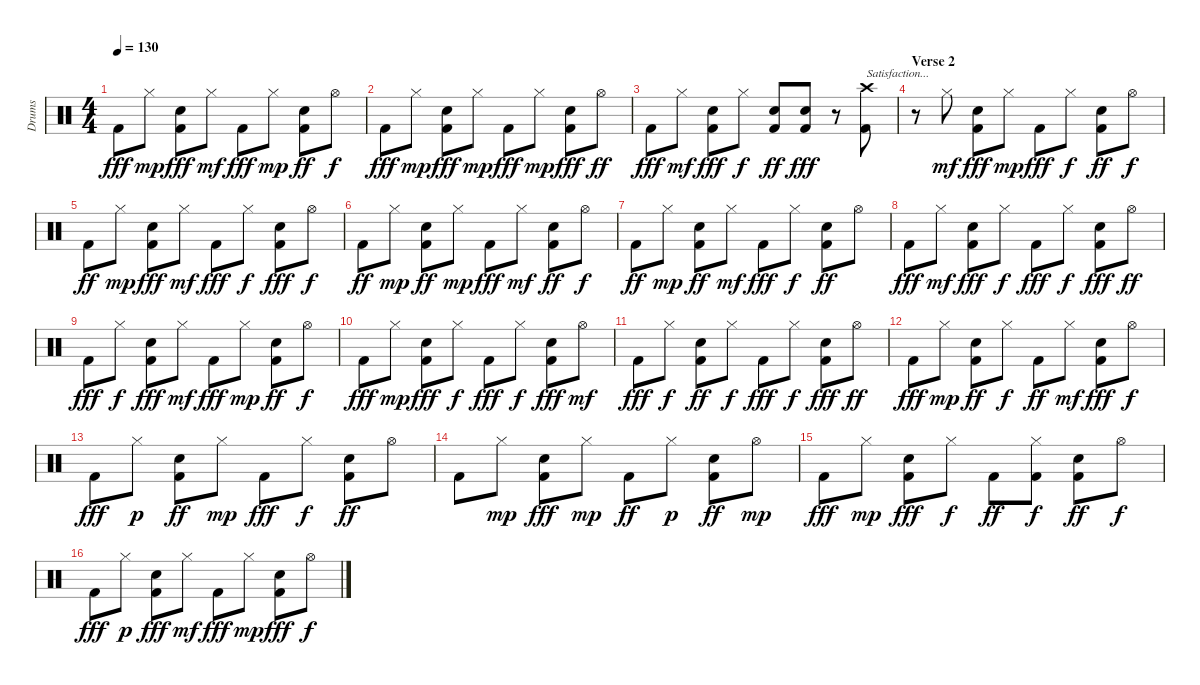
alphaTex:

\track ("Drums" "Drums") {instrument percussion}
\staff {score}
\articulation defaults
\ts (4 4)
\tempo 130
\clef neutral
\ks c "Kick (hit) 2".8{dy fff} "Hi-Hat (closed)".8{dy mp}
("Kick (hit) 2" "Snare (hit) 2").8{dy fff} "Hi-Hat (closed)".8{dy mf} "Kick (hit) 2".8{dy fff} "Hi-Hat (closed)".8{dy mp} ("Kick (hit) 2" "Snare (hit) 2").8{dy ff} "Hi-Hat (open)".8{dy f} |
"Kick (hit) 2".8{dy fff} "Hi-Hat (closed)".8{dy mp} ("Kick (hit) 2" "Snare (hit) 2").8{dy fff} "Hi-Hat (closed)".8{dy mp} "Kick (hit) 2".8{dy fff} "Hi-Hat (closed)".8{dy mp} ("Kick (hit) 2" "Snare (hit) 2").8{dy fff} "Hi-Hat (open)".8{dy ff} |
"Kick (hit) 2".8{dy fff} "Hi-Hat (closed)".8{dy mf} ("Kick (hit) 2" "Snare (hit) 2").8{dy fff} "Hi-Hat (closed)".8{dy f} ("Kick (hit) 2" "Snare (hit) 2").8{dy ff} ("Kick (hit) 2" "Snare (hit) 2").8{dy fff} r.8 ("Kick (hit) 2" "Crash high (hit)").8{txt "Satisfaction..."} |
\section ("" "Verse 2")
r.8 "Hi-Hat (closed)".8{dy mf} ("Kick (hit) 2" "Snare (hit) 2").8{dy fff} "Hi-Hat (closed)".8{dy mp} "Kick (hit) 2".8{dy fff} "Hi-Hat (closed)".8{dy f} ("Kick (hit) 2" "Snare (hit) 2").8{dy ff} "Hi-Hat (open)".8{dy f} |
"Kick (hit) 2".8{dy ff} "Hi-Hat (closed)".8{dy mp} ("Kick (hit) 2" "Snare (hit) 2").8{dy fff} "Hi-Hat (closed)".8{dy mf} "Kick (hit) 2".8{dy fff} "Hi-Hat (closed)".8{dy f} ("Kick (hit) 2" "Snare (hit) 2").8{dy fff} "Hi-Hat (open)".8{dy f} |
"Kick (hit) 2".8{dy ff} "Hi-Hat (closed)".8{dy mp} ("Kick (hit) 2" "Snare (hit) 2").8{dy ff} "Hi-Hat (closed)".8{dy mp} "Kick (hit) 2".8{dy fff} "Hi-Hat (closed)".8{dy mf} ("Kick (hit) 2" "Snare (hit) 2").8{dy ff} "Hi-Hat (open)".8{dy f} |
"Kick (hit) 2".8{dy ff} "Hi-Hat (closed)".8{dy mp} ("Kick (hit) 2" "Snare (hit) 2").8{dy ff} "Hi-Hat (closed)".8{dy mf} "Kick (hit) 2".8{dy fff} "Hi-Hat (closed)".8{dy f} ("Kick (hit) 2" "Snare (hit) 2").8{dy ff} "Hi-Hat (open)".8 |
"Kick (hit) 2".8{dy fff} "Hi-Hat (closed)".8{dy mf} ("Kick (hit) 2" "Snare (hit) 2").8{dy fff} "Hi-Hat (closed)".8{dy f} "Kick (hit) 2".8{dy fff} "Hi-Hat (closed)".8{dy f} ("Kick (hit) 2" "Snare (hit) 2").8{dy fff} "Hi-Hat (open)".8{dy ff} |
"Kick (hit) 2".8{dy fff} "Hi-Hat (closed)".8{dy f} ("Kick (hit) 2" "Snare (hit) 2").8{dy fff} "Hi-Hat (closed)".8{dy mf} "Kick (hit) 2".8{dy fff} "Hi-Hat (closed)".8{dy mp} ("Kick (hit) 2" "Snare (hit) 2").8{dy ff} "Hi-Hat (open)".8{dy f} |
"Kick (hit) 2".8{dy fff} "Hi-Hat (closed)".8{dy mp} ("Kick (hit) 2" "Snare (hit) 2").8{dy fff} "Hi-Hat (closed)".8{dy f} "Kick (hit) 2".8{dy fff} "Hi-Hat (closed)".8{dy f} ("Kick (hit) 2" "Snare (hit) 2").8{dy fff} "Hi-Hat (open)".8{dy mf} |
"Kick (hit) 2".8{dy fff} "Hi-Hat (closed)".8{dy f} ("Kick (hit) 2" "Snare (hit) 2").8{dy ff} "Hi-Hat (closed)".8{dy f} "Kick (hit) 2".8{dy fff} "Hi-Hat (closed)".8{dy f} ("Kick (hit) 2" "Snare (hit) 2").8{dy fff} "Hi-Hat (open)".8{dy ff} |
"Kick (hit) 2".8{dy fff} "Hi-Hat (closed)".8{dy mp} ("Kick (hit) 2" "Snare (hit) 2").8{dy ff} "Hi-Hat (closed)".8{dy f} "Kick (hit) 2".8{dy ff} "Hi-Hat (closed)".8{dy mf} ("Kick (hit) 2" "Snare (hit) 2").8{dy fff} "Hi-Hat (open)".8{dy f} |
"Kick (hit) 2".8{dy fff} "Hi-Hat (closed)".8{dy p} ("Kick (hit) 2" "Snare (hit) 2").8{dy ff} "Hi-Hat (closed)".8{dy mp} "Kick (hit) 2".8{dy fff} "Hi-Hat (closed)".8{dy f} ("Kick (hit) 2" "Snare (hit) 2").8{dy ff} "Hi-Hat (open)".8 |
"Kick (hit) 2".8 "Hi-Hat (closed)".8{dy mp} ("Kick (hit) 2" "Snare (hit) 2").8{dy fff} "Hi-Hat (closed)".8{dy mp} "Kick (hit) 2".8{dy ff} "Hi-Hat (closed)".8{dy p} ("Kick (hit) 2" "Snare (hit) 2").8{dy ff} "Hi-Hat (open)".8{dy mp} |
"Kick (hit) 2".8{dy fff} "Hi-Hat (closed)".8{dy mp} ("Kick (hit) 2" "Snare (hit) 2").8{dy fff} "Hi-Hat (closed)".8{dy f} "Kick (hit) 2".8{dy ff} ("Kick (hit) 2" "Hi-Hat (closed)").8{dy f} ("Kick (hit) 2" "Snare (hit) 2").8{dy ff} "Hi-Hat (open)".8{dy f} |
"Kick (hit) 2".8{dy fff} "Hi-Hat (closed)".8{dy p} ("Kick (hit) 2" "Snare (hit) 2").8{dy fff} "Hi-Hat (closed)".8{dy mf} "Kick (hit) 2".8{dy fff} "Hi-Hat (closed)".8{dy mp} ("Kick (hit) 2" "Snare (hit) 2").8{dy fff} "Hi-Hat (open)".8{dy f}
